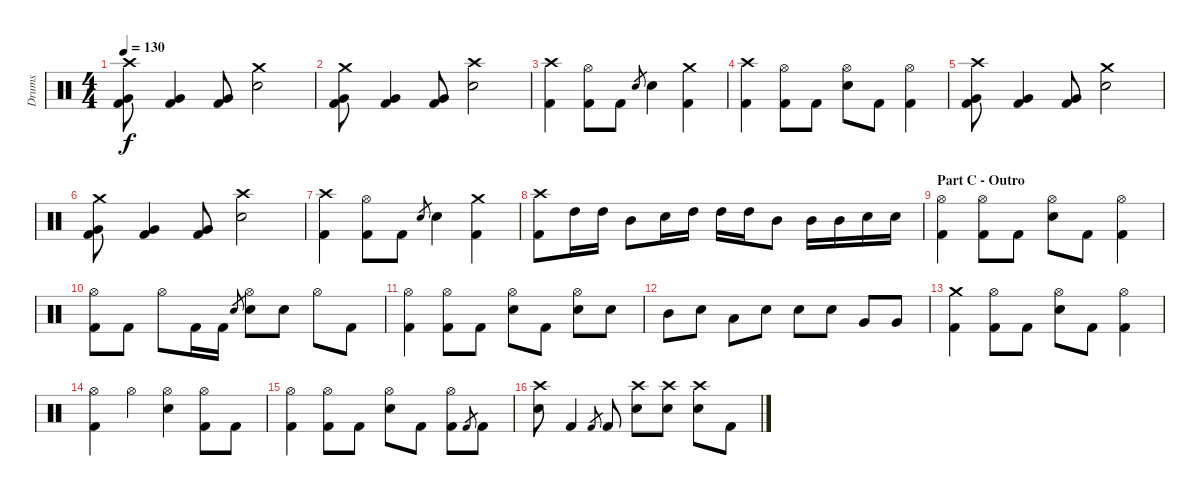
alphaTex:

\track ("Drums" "Drums") {instrument percussion}
\staff {score}
\articulation defaults
\ts (4 4)
\tempo 130
\clef neutral
\ks c
("Crash high (hit)" "Very Low Tom (hit)" "Kick (hit) 2").8{dy f} ("Very Low Tom (hit)" "Kick (hit) 2").4 ("Very Low Tom (hit)" "Kick (hit) 2").8 ("Crash medium (hit)" "Electric Snare (hit)").2 |
("Crash medium (hit)" "Very Low Tom (hit)" "Kick (hit) 2").8 ("Very Low Tom (hit)" "Kick (hit) 2").4 ("Very Low Tom (hit)" "Kick (hit) 2").8 ("Crash high (hit)" "Electric Snare (hit)").2 |
("Crash high (hit)" "Kick (hit) 2").4 ("Hi-Hat (open)" "Kick (hit) 2").8 "Kick (hit) 2".8 "Electric Snare (hit)".8{gr} "Electric Snare (hit)".4 ("Crash medium (hit)" "Kick (hit) 2").4 |
("Crash high (hit)" "Kick (hit) 2").4 ("Hi-Hat (open)" "Kick (hit) 2").8 "Kick (hit) 2".8 ("Hi-Hat (open)" "Electric Snare (hit)").8 "Kick (hit) 2".8 ("Hi-Hat (open)" "Kick (hit) 2").4 |
("Crash high (hit)" "Very Low Tom (hit)" "Kick (hit) 2").8 ("Very Low Tom (hit)" "Kick (hit) 2").4 ("Very Low Tom (hit)" "Kick (hit) 2").8 ("Crash medium (hit)" "Electric Snare (hit)").2 |
("Crash medium (hit)" "Very Low Tom (hit)" "Kick (hit) 2").8 ("Very Low Tom (hit)" "Kick (hit) 2").4 ("Very Low Tom (hit)" "Kick (hit) 2").8 ("Crash high (hit)" "Electric Snare (hit)").2 |
("Crash high (hit)" "Kick (hit) 2").4 ("Hi-Hat (open)" "Kick (hit) 2").8 "Kick (hit) 2".8 "Electric Snare (hit)".8{gr} "Electric Snare (hit)".4 ("Crash medium (hit)" "Kick (hit) 2").4 |
("Crash high (hit)" "Kick (hit) 2").8 "High Tom (hit)".16 "High Tom (hit)".16 "Mid Tom (hit)".8 "Electric Snare (hit)".16 "High Tom (hit)".16 "High Tom (hit)".16 "High Tom (hit)".16 "Mid Tom (hit)".8 "Mid Tom (hit)".16 "Mid Tom (hit)".16 "Electric Snare (hit)".16 "Electric Snare (hit)".16 |
\section ("" "Part C - Outro")
("Hi-Hat (open)" "Kick (hit) 2").4 ("Hi-Hat (open)" "Kick (hit) 2").8 "Kick (hit) 2".8 ("Hi-Hat (open)" "Electric Snare (hit)").8 "Kick (hit) 2".8 ("Hi-Hat (open)" "Kick (hit) 2").4 |
("Hi-Hat (open)" "Kick (hit) 2").8 "Kick (hit) 2".8 "Hi-Hat (open)".8 "Kick (hit) 2".16 "Kick (hit) 2".16 "Electric Snare (hit)".8{gr} ("Hi-Hat (open)" "Electric Snare (hit)").8 "Electric Snare (hit)".8 "Hi-Hat (open)".8 "Kick (hit) 2".8 |
("Hi-Hat (open)" "Kick (hit) 2").4 ("Hi-Hat (open)" "Kick (hit) 2").8 "Kick (hit) 2".8 ("Hi-Hat (open)" "Electric Snare (hit)").8 "Kick (hit) 2".8 ("Hi-Hat (open)" "Electric Snare (hit)").8 "Electric Snare (hit)".8 |
"Mid Tom (hit)".8 "Electric Snare (hit)".8 "Low Tom (hit)".8 "Electric Snare (hit)".8 "Electric Snare (hit)".8 "Electric Snare (hit)".8 "Very Low Tom (hit)".8 "Very Low Tom (hit)".8 |
("Crash medium (hit)" "Kick (hit) 2").4 ("Hi-Hat (open)" "Kick (hit) 2").8 "Kick (hit) 2".8 ("Hi-Hat (open)" "Electric Snare (hit)").8 "Kick (hit) 2".8 ("Hi-Hat (open)" "Kick (hit) 2").4 |
("Hi-Hat (open)" "Kick (hit) 2").4 "Hi-Hat (open)".4 ("Hi-Hat (open)" "Electric Snare (hit)").4 ("Hi-Hat (open)" "Kick (hit) 2").8 "Kick (hit) 2".8 |
("Hi-Hat (open)" "Kick (hit) 2").4 ("Hi-Hat (open)" "Kick (hit) 2").8 "Kick (hit) 2".8 ("Hi-Hat (open)" "Electric Snare (hit)").8 "Kick (hit) 2".8 ("Hi-Hat (open)" "Kick (hit) 2").8 "Kick (hit) 2".8{gr} "Kick (hit) 2".8 |
("Crash high (hit)" "Electric Snare (hit)").8 "Kick (hit) 2".4 "Kick (hit) 2".8{gr} "Kick (hit) 2".8 ("Crash high (hit)" "Electric Snare (hit)").8 ("Crash high (hit)" "Electric Snare (hit)").8 ("Crash high (hit)" "Electric Snare (hit)").8 "Kick (hit) 2".8
